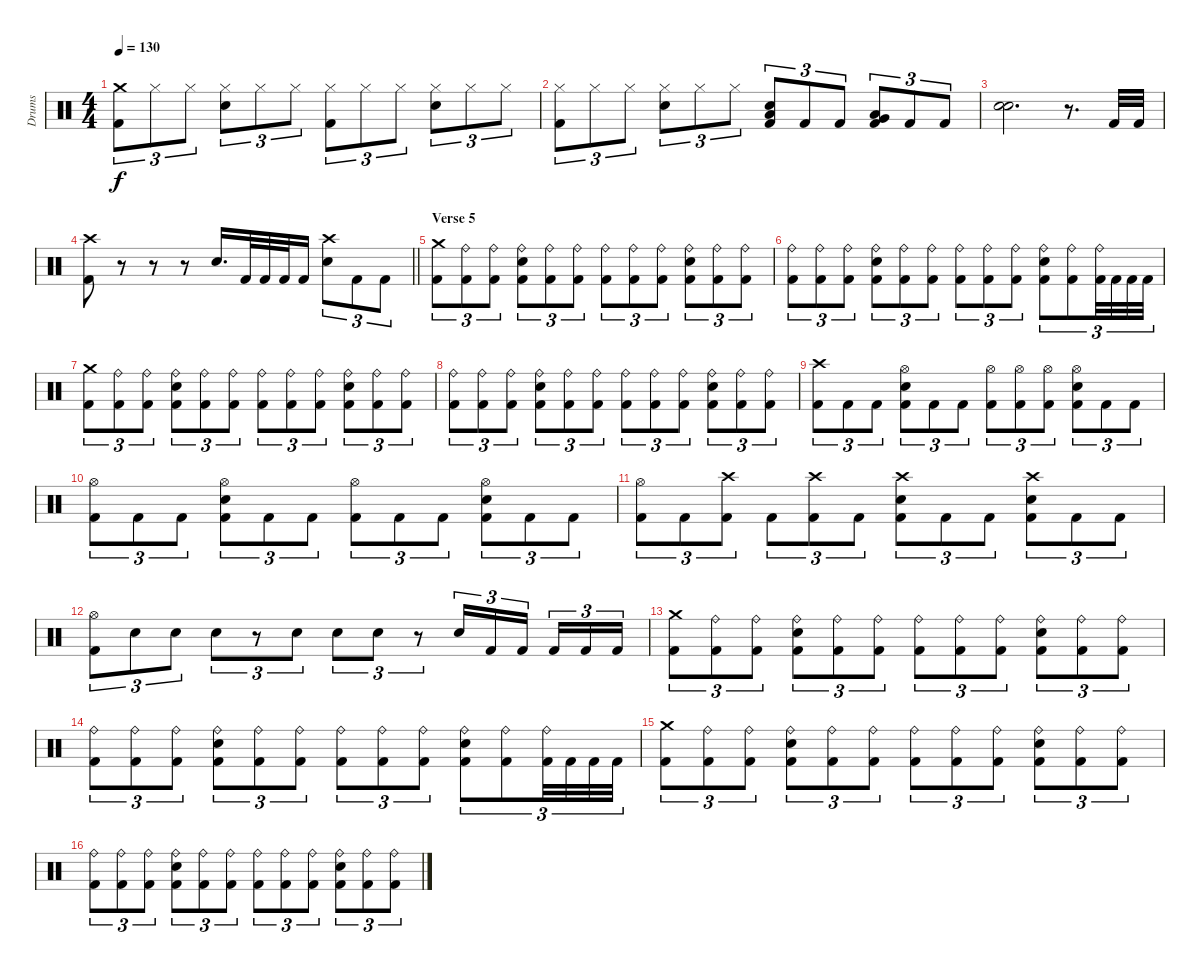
\track ("Drums" "Drums") {instrument percussion}
\staff {score}
\articulation defaults
\ts (4 4)
\tempo 130
\clef neutral
\ks c
("Crash medium (hit)" "Kick (hit) 2").8{tu (3 2) dy f} "Hi-Hat (closed)".8{tu (3 2)} "Hi-Hat (closed)".8{tu (3 2)} ("Hi-Hat (closed)" "Electric Snare (hit)").8{tu (3 2)} "Hi-Hat (closed)".8{tu (3 2)} "Hi-Hat (closed)".8{tu (3 2)} ("Hi-Hat (closed)" "Kick (hit) 2").8{tu (3 2)} "Hi-Hat (closed)".8{tu (3 2)} "Hi-Hat (closed)".8{tu (3 2)} ("Hi-Hat (closed)" "Electric Snare (hit)").8{tu (3 2)} "Hi-Hat (closed)".8{tu (3 2)} "Hi-Hat (closed)".8{tu (3 2)} |
("Hi-Hat (closed)" "Kick (hit) 2").8{tu (3 2)} "Hi-Hat (closed)".8{tu (3 2)} "Hi-Hat (closed)".8{tu (3 2)} ("Hi-Hat (closed)" "Electric Snare (hit)").8{tu (3 2)} "Hi-Hat (closed)".8{tu (3 2)} "Hi-Hat (closed)".8{tu (3 2)} ("Low Tom (hit)" "Electric Snare (hit)" "Kick (hit) 2").8{tu (3 2)} "Kick (hit) 2".8{tu (3 2)} "Kick (hit) 2".8{tu (3 2)} ("Low Tom (hit)" "Very Low Tom (hit)" "Kick (hit) 2").8{tu (3 2)} "Kick (hit) 2".8{tu (3 2)} "Kick (hit) 2".8{tu (3 2)} |
("Electric Snare (hit)" "Electric Snare (hit)").2{d} r.8{d} "Kick (hit) 2".32 "Kick (hit) 2".32 |
\barLineRight lightlight
("Crash high (hit)" "Kick (hit) 2").8 r.8 r.8 r.8 "Electric Snare (hit)".16{d} "Kick (hit) 2".32 "Kick (hit) 2".32 "Kick (hit) 2".32 "Kick (hit) 2".16 ("Crash high (hit)" "Electric Snare (hit)").8{tu (3 2)} "Kick (hit) 2".8{tu (3 2)} "Kick (hit) 2".8{tu (3 2)} |
\section ("" "Verse 5")
("Crash medium (hit)" "Kick (hit) 2").8{tu (3 2)} ("Ride (bell)" "Kick (hit) 2").8{tu (3 2)} ("Ride (bell)" "Kick (hit) 2").8{tu (3 2)} ("Ride (bell)" "Electric Snare (hit)" "Kick (hit) 2").8{tu (3 2)} ("Ride (bell)" "Kick (hit) 2").8{tu (3 2)} ("Ride (bell)" "Kick (hit) 2").8{tu (3 2)} ("Ride (bell)" "Kick (hit) 2").8{tu (3 2)} ("Ride (bell)" "Kick (hit) 2").8{tu (3 2)} ("Ride (bell)" "Kick (hit) 2").8{tu (3 2)} ("Ride (bell)" "Electric Snare (hit)" "Kick (hit) 2").8{tu (3 2)} ("Ride (bell)" "Kick (hit) 2").8{tu (3 2)} ("Ride (bell)" "Kick (hit) 2").8{tu (3 2)} |
("Ride (bell)" "Kick (hit) 2").8{tu (3 2)} ("Ride (bell)" "Kick (hit) 2").8{tu (3 2)} ("Ride (bell)" "Kick (hit) 2").8{tu (3 2)} ("Ride (bell)" "Electric Snare (hit)" "Kick (hit) 2").8{tu (3 2)} ("Ride (bell)" "Kick (hit) 2").8{tu (3 2)} ("Ride (bell)" "Kick (hit) 2").8{tu (3 2)} ("Ride (bell)" "Kick (hit) 2").8{tu (3 2)} ("Ride (bell)" "Kick (hit) 2").8{tu (3 2)} ("Ride (bell)" "Kick (hit) 2").8{tu (3 2)} ("Ride (bell)" "Electric Snare (hit)" "Kick (hit) 2").8{tu (3 2)} ("Ride (bell)" "Kick (hit) 2").8{tu (3 2)} ("Ride (bell)" "Kick (hit) 2").32{tu (3 2)} "Kick (hit) 2".32{tu (3 2)} "Kick (hit) 2".32{tu (3 2)} "Kick (hit) 2".32{tu (3 2)} |
("Crash medium (hit)" "Kick (hit) 2").8{tu (3 2)} ("Ride (bell)" "Kick (hit) 2").8{tu (3 2)} ("Ride (bell)" "Kick (hit) 2").8{tu (3 2)} ("Ride (bell)" "Electric Snare (hit)" "Kick (hit) 2").8{tu (3 2)} ("Ride (bell)" "Kick (hit) 2").8{tu (3 2)} ("Ride (bell)" "Kick (hit) 2").8{tu (3 2)} ("Ride (bell)" "Kick (hit) 2").8{tu (3 2)} ("Ride (bell)" "Kick (hit) 2").8{tu (3 2)} ("Ride (bell)" "Kick (hit) 2").8{tu (3 2)} ("Ride (bell)" "Electric Snare (hit)" "Kick (hit) 2").8{tu (3 2)} ("Ride (bell)" "Kick (hit) 2").8{tu (3 2)} ("Ride (bell)" "Kick (hit) 2").8{tu (3 2)} |
("Ride (bell)" "Kick (hit) 2").8{tu (3 2)} ("Ride (bell)" "Kick (hit) 2").8{tu (3 2)} ("Ride (bell)" "Kick (hit) 2").8{tu (3 2)} ("Ride (bell)" "Electric Snare (hit)" "Kick (hit) 2").8{tu (3 2)} ("Ride (bell)" "Kick (hit) 2").8{tu (3 2)} ("Ride (bell)" "Kick (hit) 2").8{tu (3 2)} ("Ride (bell)" "Kick (hit) 2").8{tu (3 2)} ("Ride (bell)" "Kick (hit) 2").8{tu (3 2)} ("Ride (bell)" "Kick (hit) 2").8{tu (3 2)} ("Ride (bell)" "Electric Snare (hit)" "Kick (hit) 2").8{tu (3 2)} ("Ride (bell)" "Kick (hit) 2").8{tu (3 2)} ("Ride (bell)" "Kick (hit) 2").8{tu (3 2)} |
("Crash high (hit)" "Kick (hit) 2").8{tu (3 2)} "Kick (hit) 2".8{tu (3 2)} "Kick (hit) 2".8{tu (3 2)} ("Hi-Hat (open)" "Electric Snare (hit)" "Kick (hit) 2").8{tu (3 2)} "Kick (hit) 2".8{tu (3 2)} "Kick (hit) 2".8{tu (3 2)} ("Hi-Hat (open)" "Kick (hit) 2").8{tu (3 2)} ("Hi-Hat (open)" "Kick (hit) 2").8{tu (3 2)} ("Hi-Hat (open)" "Kick (hit) 2").8{tu (3 2)} ("Hi-Hat (open)" "Electric Snare (hit)" "Kick (hit) 2").8{tu (3 2)} "Kick (hit) 2".8{tu (3 2)} "Kick (hit) 2".8{tu (3 2)} |
("Hi-Hat (open)" "Kick (hit) 2").8{tu (3 2)} "Kick (hit) 2".8{tu (3 2)} "Kick (hit) 2".8{tu (3 2)} ("Hi-Hat (open)" "Electric Snare (hit)" "Kick (hit) 2").8{tu (3 2)} "Kick (hit) 2".8{tu (3 2)} "Kick (hit) 2".8{tu (3 2)} ("Hi-Hat (open)" "Kick (hit) 2").8{tu (3 2)} "Kick (hit) 2".8{tu (3 2)} "Kick (hit) 2".8{tu (3 2)} ("Hi-Hat (open)" "Electric Snare (hit)" "Kick (hit) 2").8{tu (3 2)} "Kick (hit) 2".8{tu (3 2)} "Kick (hit) 2".8{tu (3 2)} |
("Hi-Hat (open)" "Kick (hit) 2").8{tu (3 2)} "Kick (hit) 2".8{tu (3 2)} ("Crash high (hit)" "Kick (hit) 2").8{tu (3 2)} "Kick (hit) 2".8{tu (3 2)} ("Crash high (hit)" "Kick (hit) 2").8{tu (3 2)} "Kick (hit) 2".8{tu (3 2)} ("Crash high (hit)" "Electric Snare (hit)" "Kick (hit) 2").8{tu (3 2)} "Kick (hit) 2".8{tu (3 2)} "Kick (hit) 2".8{tu (3 2)} ("Crash high (hit)" "Electric Snare (hit)" "Kick (hit) 2").8{tu (3 2)} "Kick (hit) 2".8{tu (3 2)} "Kick (hit) 2".8{tu (3 2)} |
("Hi-Hat (open)" "Kick (hit) 2").8{tu (3 2)} "Electric Snare (hit)".8{tu (3 2)} "Electric Snare (hit)".8{tu (3 2)} "Electric Snare (hit)".8{tu (3 2)} r.8{tu (3 2)} "Electric Snare (hit)".8{tu (3 2)} "Electric Snare (hit)".8{tu (3 2)} "Electric Snare (hit)".8{tu (3 2)} r.8{tu (3 2)} "Electric Snare (hit)".16{tu (3 2)} "Kick (hit) 2".16{tu (3 2)} "Kick (hit) 2".16{tu (3 2) beam splitsecondary} "Kick (hit) 2".16{tu (3 2)} "Kick (hit) 2".16{tu (3 2)} "Kick (hit) 2".16{tu (3 2)} |
("Crash medium (hit)" "Kick (hit) 2").8{tu (3 2)} ("Ride (bell)" "Kick (hit) 2").8{tu (3 2)} ("Ride (bell)" "Kick (hit) 2").8{tu (3 2)} ("Ride (bell)" "Electric Snare (hit)" "Kick (hit) 2").8{tu (3 2)} ("Ride (bell)" "Kick (hit) 2").8{tu (3 2)} ("Ride (bell)" "Kick (hit) 2").8{tu (3 2)} ("Ride (bell)" "Kick (hit) 2").8{tu (3 2)} ("Ride (bell)" "Kick (hit) 2").8{tu (3 2)} ("Ride (bell)" "Kick (hit) 2").8{tu (3 2)} ("Ride (bell)" "Electric Snare (hit)" "Kick (hit) 2").8{tu (3 2)} ("Ride (bell)" "Kick (hit) 2").8{tu (3 2)} ("Ride (bell)" "Kick (hit) 2").8{tu (3 2)} |
("Ride (bell)" "Kick (hit) 2").8{tu (3 2)} ("Ride (bell)" "Kick (hit) 2").8{tu (3 2)} ("Ride (bell)" "Kick (hit) 2").8{tu (3 2)} ("Ride (bell)" "Electric Snare (hit)" "Kick (hit) 2").8{tu (3 2)} ("Ride (bell)" "Kick (hit) 2").8{tu (3 2)} ("Ride (bell)" "Kick (hit) 2").8{tu (3 2)} ("Ride (bell)" "Kick (hit) 2").8{tu (3 2)} ("Ride (bell)" "Kick (hit) 2").8{tu (3 2)} ("Ride (bell)" "Kick (hit) 2").8{tu (3 2)} ("Ride (bell)" "Electric Snare (hit)" "Kick (hit) 2").8{tu (3 2)} ("Ride (bell)" "Kick (hit) 2").8{tu (3 2)} ("Ride (bell)" "Kick (hit) 2").32{tu (3 2)} "Kick (hit) 2".32{tu (3 2)} "Kick (hit) 2".32{tu (3 2)} "Kick (hit) 2".32{tu (3 2)} |
("Crash medium (hit)" "Kick (hit) 2").8{tu (3 2)} ("Ride (bell)" "Kick (hit) 2").8{tu (3 2)} ("Ride (bell)" "Kick (hit) 2").8{tu (3 2)} ("Ride (bell)" "Electric Snare (hit)" "Kick (hit) 2").8{tu (3 2)} ("Ride (bell)" "Kick (hit) 2").8{tu (3 2)} ("Ride (bell)" "Kick (hit) 2").8{tu (3 2)} ("Ride (bell)" "Kick (hit) 2").8{tu (3 2)} ("Ride (bell)" "Kick (hit) 2").8{tu (3 2)} ("Ride (bell)" "Kick (hit) 2").8{tu (3 2)} ("Ride (bell)" "Electric Snare (hit)" "Kick (hit) 2").8{tu (3 2)} ("Ride (bell)" "Kick (hit) 2").8{tu (3 2)} ("Ride (bell)" "Kick (hit) 2").8{tu (3 2)} |
("Ride (bell)" "Kick (hit) 2").8{tu (3 2)} ("Ride (bell)" "Kick (hit) 2").8{tu (3 2)} ("Ride (bell)" "Kick (hit) 2").8{tu (3 2)} ("Ride (bell)" "Electric Snare (hit)" "Kick (hit) 2").8{tu (3 2)} ("Ride (bell)" "Kick (hit) 2").8{tu (3 2)} ("Ride (bell)" "Kick (hit) 2").8{tu (3 2)} ("Ride (bell)" "Kick (hit) 2").8{tu (3 2)} ("Ride (bell)" "Kick (hit) 2").8{tu (3 2)} ("Ride (bell)" "Kick (hit) 2").8{tu (3 2)} ("Ride (bell)" "Electric Snare (hit)" "Kick (hit) 2").8{tu (3 2)} ("Ride (bell)" "Kick (hit) 2").8{tu (3 2)} ("Ride (bell)" "Kick (hit) 2").8{tu (3 2)}
